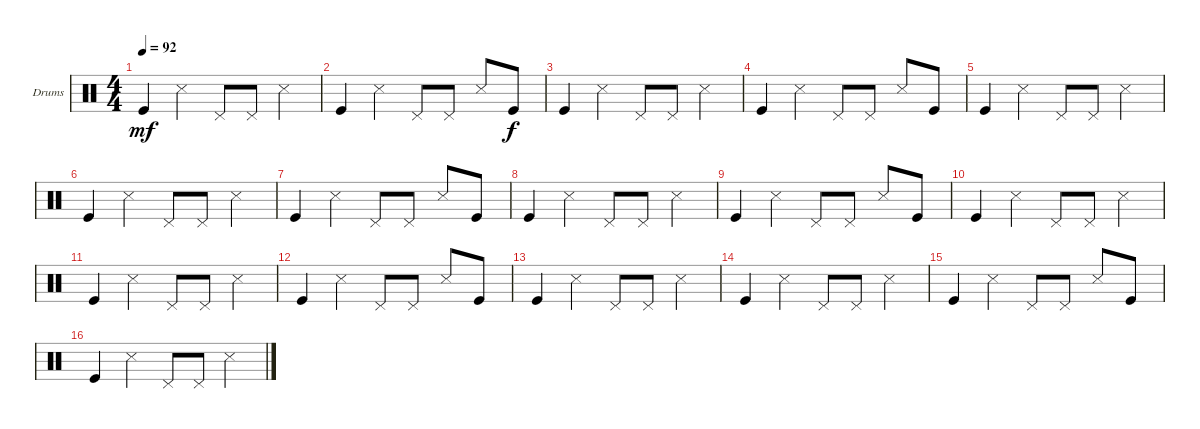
\defaultSystemsLayout 4
\bracketExtendMode groupsimilarinstruments
\firstSystemTrackNameOrientation horizontal
\otherSystemsTrackNameOrientation horizontal
\track ("Е. Кулаков" "Drums") {instrument percussion}
\staff {score}
\articulation defaults
\ts (4 4)
\tempo 92
\clef neutral
\ks c "Kick (hit)".4{dy mf} "Snare (side stick) 3".4 "Pedal Hi-Hat (hit)".8 "Pedal Hi-Hat (hit)".8 "Snare (side stick) 3".4
|
"Kick (hit)".4 "Snare (side stick) 3".4 "Pedal Hi-Hat (hit)".8 "Pedal Hi-Hat (hit)".8 "Snare (side stick) 3".8 "Kick (hit)".8{dy f} |
"Kick (hit)".4 "Snare (side stick) 3".4 "Pedal Hi-Hat (hit)".8 "Pedal Hi-Hat (hit)".8 "Snare (side stick) 3".4 |
"Kick (hit)".4 "Snare (side stick) 3".4 "Pedal Hi-Hat (hit)".8 "Pedal Hi-Hat (hit)".8 "Snare (side stick) 3".8 "Kick (hit)".8 |
"Kick (hit)".4 "Snare (side stick) 3".4 "Pedal Hi-Hat (hit)".8 "Pedal Hi-Hat (hit)".8 "Snare (side stick) 3".4 |
"Kick (hit)".4 "Snare (side stick) 3".4 "Pedal Hi-Hat (hit)".8 "Pedal Hi-Hat (hit)".8 "Snare (side stick) 3".4 |
"Kick (hit)".4 "Snare (side stick) 3".4 "Pedal Hi-Hat (hit)".8 "Pedal Hi-Hat (hit)".8 "Snare (side stick) 3".8 "Kick (hit)".8 |
"Kick (hit)".4 "Snare (side stick) 3".4 "Pedal Hi-Hat (hit)".8 "Pedal Hi-Hat (hit)".8 "Snare (side stick) 3".4 |
"Kick (hit)".4 "Snare (side stick) 3".4 "Pedal Hi-Hat (hit)".8 "Pedal Hi-Hat (hit)".8 "Snare (side stick) 3".8 "Kick (hit)".8 |
"Kick (hit)".4 "Snare (side stick) 3".4 "Pedal Hi-Hat (hit)".8 "Pedal Hi-Hat (hit)".8 "Snare (side stick) 3".4 |
"Kick (hit)".4 "Snare (side stick) 3".4 "Pedal Hi-Hat (hit)".8 "Pedal Hi-Hat (hit)".8 "Snare (side stick) 3".4 |
"Kick (hit)".4 "Snare (side stick) 3".4 "Pedal Hi-Hat (hit)".8 "Pedal Hi-Hat (hit)".8 "Snare (side stick) 3".8 "Kick (hit)".8 |
"Kick (hit)".4 "Snare (side stick) 3".4 "Pedal Hi-Hat (hit)".8 "Pedal Hi-Hat (hit)".8 "Snare (side stick) 3".4 |
"Kick (hit)".4 "Snare (side stick) 3".4 "Pedal Hi-Hat (hit)".8 "Pedal Hi-Hat (hit)".8 "Snare (side stick) 3".4 |
"Kick (hit)".4 "Snare (side stick) 3".4 "Pedal Hi-Hat (hit)".8 "Pedal Hi-Hat (hit)".8 "Snare (side stick) 3".8 "Kick (hit)".8 |
"Kick (hit)".4 "Snare (side stick) 3".4 "Pedal Hi-Hat (hit)".8 "Pedal Hi-Hat (hit)".8 "Snare (side stick) 3".4
